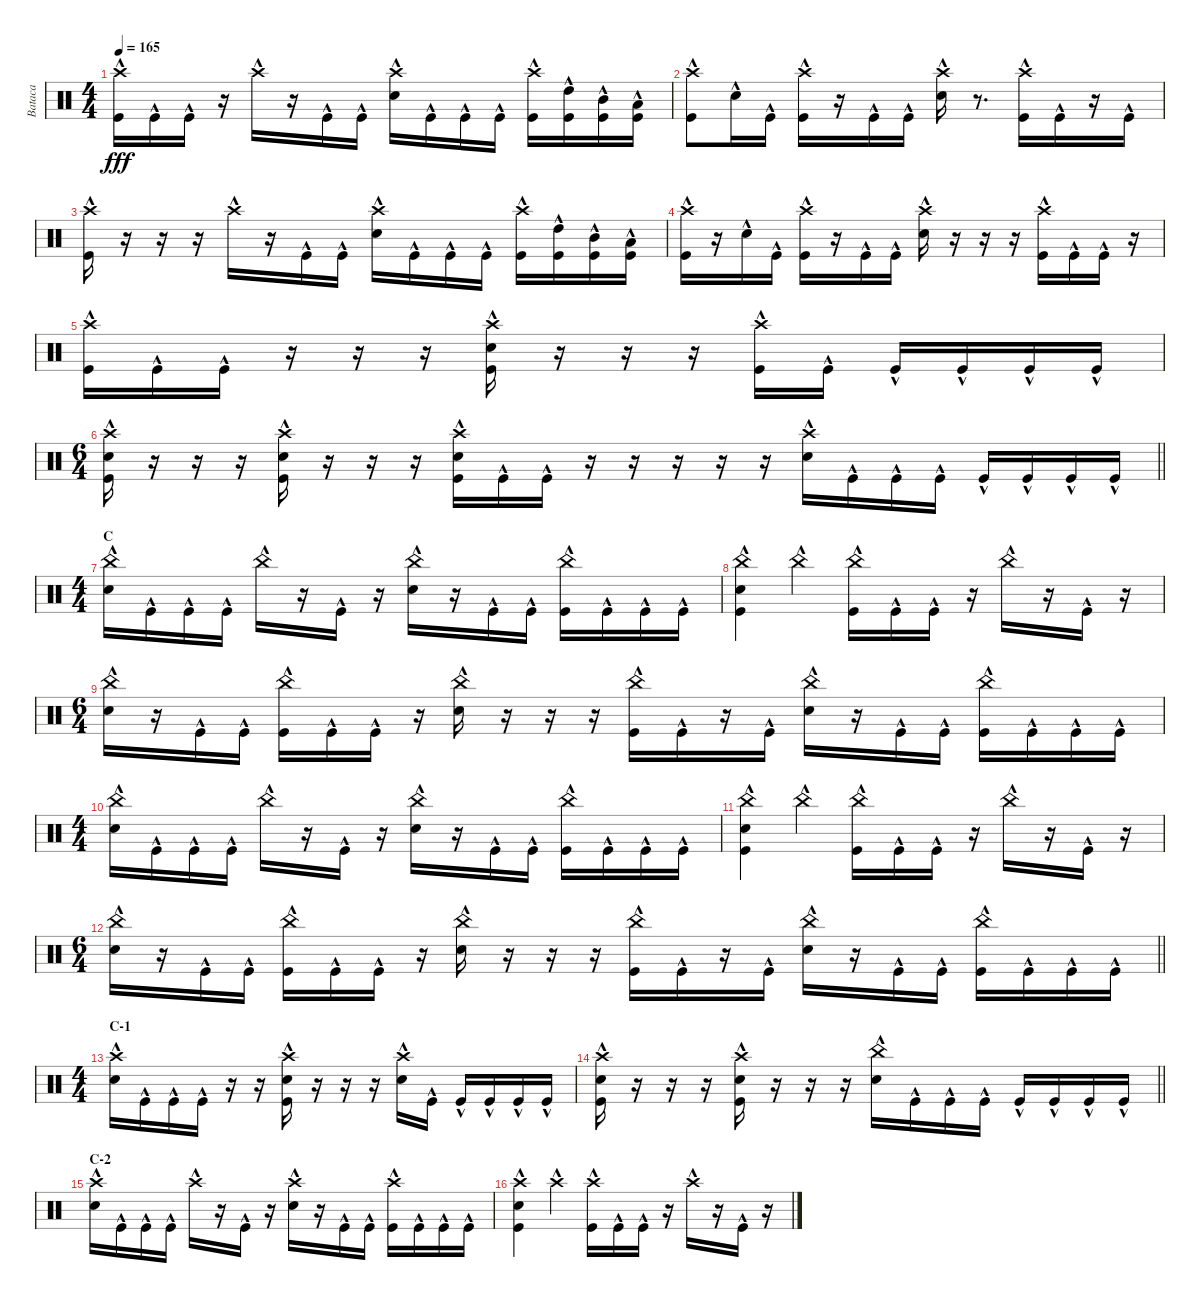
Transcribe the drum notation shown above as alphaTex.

\track ("Bataca" "Bataca") {instrument percussion}
\staff {score}
\articulation defaults
\ts (4 4)
\tempo 165
\clef neutral
\ks c
("Crash high (hit)"{hac} "Kick (hit)"{hac}).16{dy fff} "Kick (hit)"{hac}.16 "Kick (hit)"{hac}.16 r.16 "Crash high (hit)"{hac}.16 r.16 "Kick (hit)"{hac}.16 "Kick (hit)"{hac}.16 ("Crash high (hit)"{hac} "Electric Snare (hit)"{hac}).16 "Kick (hit)"{hac}.16 "Kick (hit)"{hac}.16 "Kick (hit)"{hac}.16 ("Crash high (hit)"{hac} "Kick (hit)"{hac}).16 ("High Tom (hit)"{hac} "Kick (hit)"{hac}).16 ("Mid Tom (hit)"{hac} "Kick (hit)"{hac}).16 ("Low Tom (hit)"{hac} "Kick (hit)"{hac}).16 |
("Crash high (hit)"{hac} "Kick (hit)"{hac}).8 "Electric Snare (hit)"{hac}.16 "Kick (hit)"{hac}.16 ("Crash high (hit)"{hac} "Kick (hit)"{hac}).16 r.16 "Kick (hit)"{hac}.16 "Kick (hit)"{hac}.16 ("Crash high (hit)"{hac} "Electric Snare (hit)"{hac}).16 r.8{d} ("Crash high (hit)"{hac} "Kick (hit)"{hac}).16 "Kick (hit)"{hac}.16 r.16 "Kick (hit)"{hac}.16 |
("Crash high (hit)"{hac} "Kick (hit)"{hac}).16 r.16 r.16 r.16 "Crash high (hit)"{hac}.16 r.16 "Kick (hit)"{hac}.16 "Kick (hit)"{hac}.16 ("Crash high (hit)"{hac} "Electric Snare (hit)"{hac}).16 "Kick (hit)"{hac}.16 "Kick (hit)"{hac}.16 "Kick (hit)"{hac}.16 ("Crash high (hit)"{hac} "Kick (hit)"{hac}).16 ("High Tom (hit)"{hac} "Kick (hit)"{hac}).16 ("Mid Tom (hit)"{hac} "Kick (hit)"{hac}).16 ("Low Tom (hit)"{hac} "Kick (hit)"{hac}).16 |
("Crash high (hit)"{hac} "Kick (hit)"{hac}).16 r.16 "Electric Snare (hit)"{hac}.16 "Kick (hit)"{hac}.16 ("Crash high (hit)"{hac} "Kick (hit)"{hac}).16 r.16 "Kick (hit)"{hac}.16 "Kick (hit)"{hac}.16 ("Crash high (hit)"{hac} "Electric Snare (hit)"{hac}).16 r.16 r.16 r.16 ("Crash high (hit)"{hac} "Kick (hit)"{hac}).16 "Kick (hit)"{hac}.16 "Kick (hit)"{hac}.16 r.16 |
("Crash high (hit)"{hac} "Kick (hit)"{hac}).16 "Kick (hit)"{hac}.16 "Kick (hit)"{hac}.16 r.16 r.16 r.16 ("Crash high (hit)"{hac} "Electric Snare (hit)"{hac} "Kick (hit)"{hac}).16 r.16 r.16 r.16 ("Crash high (hit)"{hac} "Kick (hit)"{hac}).16 "Kick (hit)"{hac}.16 "Kick (hit)"{hac}.16 "Kick (hit)"{hac}.16 "Kick (hit)"{hac}.16 "Kick (hit)"{hac}.16 |
\ts (6 4)
\barLineRight lightlight
("Crash high (hit)"{hac} "Electric Snare (hit)"{hac} "Kick (hit)"{hac}).16 r.16 r.16 r.16 ("Crash high (hit)"{hac} "Electric Snare (hit)"{hac} "Kick (hit)"{hac}).16 r.16 r.16 r.16 ("Crash high (hit)"{hac} "Electric Snare (hit)"{hac} "Kick (hit)"{hac}).16 "Kick (hit)"{hac}.16 "Kick (hit)"{hac}.16 r.16 r.16 r.16 r.16 r.16 ("Crash high (hit)"{hac} "Electric Snare (hit)"{hac}).16 "Kick (hit)"{hac}.16 "Kick (hit)"{hac}.16 "Kick (hit)"{hac}.16 "Kick (hit)"{hac}.16 "Kick (hit)"{hac}.16 "Kick (hit)"{hac}.16 "Kick (hit)"{hac}.16 |
\ts (4 4)
\section ("" "C")
("China (hit)"{hac} "Electric Snare (hit)"{hac}).16 "Kick (hit)"{hac}.16 "Kick (hit)"{hac}.16 "Kick (hit)"{hac}.16 "China (hit)"{hac}.16 r.16 "Kick (hit)"{hac}.16 r.16 ("China (hit)"{hac} "Electric Snare (hit)"{hac}).16 r.16 "Kick (hit)"{hac}.16 "Kick (hit)"{hac}.16 ("China (hit)"{hac} "Kick (hit)"{hac}).16 "Kick (hit)"{hac}.16 "Kick (hit)"{hac}.16 "Kick (hit)"{hac}.16 |
("China (hit)"{hac} "Electric Snare (hit)"{hac} "Kick (hit)"{hac}).4 "China (hit)"{hac}.4 ("China (hit)"{hac} "Kick (hit)"{hac}).16 "Kick (hit)"{hac}.16 "Kick (hit)"{hac}.16 r.16 "China (hit)"{hac}.16 r.16 "Kick (hit)"{hac}.16 r.16 |
\ts (6 4)
("China (hit)"{hac} "Electric Snare (hit)"{hac}).16 r.16 "Kick (hit)"{hac}.16 "Kick (hit)"{hac}.16 ("China (hit)"{hac} "Kick (hit)"{hac}).16 "Kick (hit)"{hac}.16 "Kick (hit)"{hac}.16 r.16 ("China (hit)"{hac} "Electric Snare (hit)"{hac}).16 r.16 r.16 r.16 ("China (hit)"{hac} "Kick (hit)"{hac}).16 "Kick (hit)"{hac}.16 r.16 "Kick (hit)"{hac}.16 ("China (hit)"{hac} "Electric Snare (hit)"{hac}).16 r.16 "Kick (hit)"{hac}.16 "Kick (hit)"{hac}.16 ("China (hit)"{hac} "Kick (hit)"{hac}).16 "Kick (hit)"{hac}.16 "Kick (hit)"{hac}.16 "Kick (hit)"{hac}.16 |
\ts (4 4)
("China (hit)"{hac} "Electric Snare (hit)"{hac}).16 "Kick (hit)"{hac}.16 "Kick (hit)"{hac}.16 "Kick (hit)"{hac}.16 "China (hit)"{hac}.16 r.16 "Kick (hit)"{hac}.16 r.16 ("China (hit)"{hac} "Electric Snare (hit)"{hac}).16 r.16 "Kick (hit)"{hac}.16 "Kick (hit)"{hac}.16 ("China (hit)"{hac} "Kick (hit)"{hac}).16 "Kick (hit)"{hac}.16 "Kick (hit)"{hac}.16 "Kick (hit)"{hac}.16 |
("China (hit)"{hac} "Electric Snare (hit)"{hac} "Kick (hit)"{hac}).4 "China (hit)"{hac}.4 ("China (hit)"{hac} "Kick (hit)"{hac}).16 "Kick (hit)"{hac}.16 "Kick (hit)"{hac}.16 r.16 "China (hit)"{hac}.16 r.16 "Kick (hit)"{hac}.16 r.16 |
\ts (6 4)
\barLineRight lightlight
("China (hit)"{hac} "Electric Snare (hit)"{hac}).16 r.16 "Kick (hit)"{hac}.16 "Kick (hit)"{hac}.16 ("China (hit)"{hac} "Kick (hit)"{hac}).16 "Kick (hit)"{hac}.16 "Kick (hit)"{hac}.16 r.16 ("China (hit)"{hac} "Electric Snare (hit)"{hac}).16 r.16 r.16 r.16 ("China (hit)"{hac} "Kick (hit)"{hac}).16 "Kick (hit)"{hac}.16 r.16 "Kick (hit)"{hac}.16 ("China (hit)"{hac} "Electric Snare (hit)"{hac}).16 r.16 "Kick (hit)"{hac}.16 "Kick (hit)"{hac}.16 ("China (hit)"{hac} "Kick (hit)"{hac}).16 "Kick (hit)"{hac}.16 "Kick (hit)"{hac}.16 "Kick (hit)"{hac}.16 |
\ts (4 4)
\section ("" "C-1")
("Crash high (hit)"{hac} "Electric Snare (hit)"{hac}).16 "Kick (hit)"{hac}.16 "Kick (hit)"{hac}.16 "Kick (hit)"{hac}.16 r.16 r.16 ("Crash high (hit)"{hac} "Electric Snare (hit)"{hac} "Kick (hit)"{hac}).16 r.16 r.16 r.16 ("Crash high (hit)"{hac} "Electric Snare (hit)"{hac}).16 "Kick (hit)"{hac}.16 "Kick (hit)"{hac}.16 "Kick (hit)"{hac}.16 "Kick (hit)"{hac}.16 "Kick (hit)"{hac}.16 |
\barLineRight lightlight
("Crash high (hit)"{hac} "Electric Snare (hit)"{hac} "Kick (hit)"{hac}).16 r.16 r.16 r.16 ("Crash high (hit)"{hac} "Electric Snare (hit)"{hac} "Kick (hit)"{hac}).16 r.16 r.16 r.16 ("China (hit)"{hac} "Electric Snare (hit)"{hac}).16 "Kick (hit)"{hac}.16 "Kick (hit)"{hac}.16 "Kick (hit)"{hac}.16 "Kick (hit)"{hac}.16 "Kick (hit)"{hac}.16 "Kick (hit)"{hac}.16 "Kick (hit)"{hac}.16 |
\section ("" "C-2")
("Crash high (hit)"{hac} "Electric Snare (hit)"{hac}).16 "Kick (hit)"{hac}.16 "Kick (hit)"{hac}.16 "Kick (hit)"{hac}.16 "Crash high (hit)"{hac}.16 r.16 "Kick (hit)"{hac}.16 r.16 ("Crash high (hit)"{hac} "Electric Snare (hit)"{hac}).16 r.16 "Kick (hit)"{hac}.16 "Kick (hit)"{hac}.16 ("Crash high (hit)"{hac} "Kick (hit)"{hac}).16 "Kick (hit)"{hac}.16 "Kick (hit)"{hac}.16 "Kick (hit)"{hac}.16 |
("Crash high (hit)"{hac} "Electric Snare (hit)"{hac} "Kick (hit)"{hac}).4 "Crash high (hit)"{hac}.4 ("Crash high (hit)"{hac} "Kick (hit)"{hac}).16 "Kick (hit)"{hac}.16 "Kick (hit)"{hac}.16 r.16 "Crash high (hit)"{hac}.16 r.16 "Kick (hit)"{hac}.16 r.16
